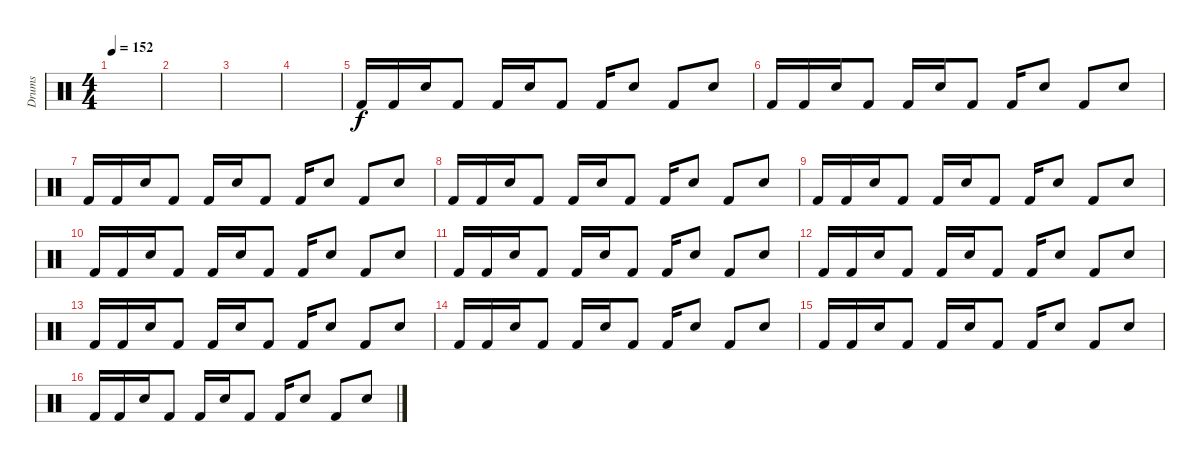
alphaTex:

\track ("Drums" "Drums") {instrument percussion}
\staff {score}
\articulation defaults
\ts (4 4)
\tempo 152
\clef neutral
\ks c
|
|
|
|
"Kick (hit) 2".16 "Kick (hit) 2".16 "Electric Snare (hit)".16 "Kick (hit) 2".8 "Kick (hit) 2".16 "Electric Snare (hit)".16 "Kick (hit) 2".8 "Kick (hit) 2".16 "Electric Snare (hit)".8 "Kick (hit) 2".8 "Electric Snare (hit)".8 |
"Kick (hit) 2".16 "Kick (hit) 2".16 "Electric Snare (hit)".16 "Kick (hit) 2".8 "Kick (hit) 2".16 "Electric Snare (hit)".16 "Kick (hit) 2".8 "Kick (hit) 2".16 "Electric Snare (hit)".8 "Kick (hit) 2".8 "Electric Snare (hit)".8 |
"Kick (hit) 2".16 "Kick (hit) 2".16 "Electric Snare (hit)".16 "Kick (hit) 2".8 "Kick (hit) 2".16 "Electric Snare (hit)".16 "Kick (hit) 2".8 "Kick (hit) 2".16 "Electric Snare (hit)".8 "Kick (hit) 2".8 "Electric Snare (hit)".8 |
"Kick (hit) 2".16 "Kick (hit) 2".16 "Electric Snare (hit)".16 "Kick (hit) 2".8 "Kick (hit) 2".16 "Electric Snare (hit)".16 "Kick (hit) 2".8 "Kick (hit) 2".16 "Electric Snare (hit)".8 "Kick (hit) 2".8 "Electric Snare (hit)".8 |
"Kick (hit) 2".16 "Kick (hit) 2".16 "Electric Snare (hit)".16 "Kick (hit) 2".8 "Kick (hit) 2".16 "Electric Snare (hit)".16 "Kick (hit) 2".8 "Kick (hit) 2".16 "Electric Snare (hit)".8 "Kick (hit) 2".8 "Electric Snare (hit)".8 |
"Kick (hit) 2".16 "Kick (hit) 2".16 "Electric Snare (hit)".16 "Kick (hit) 2".8 "Kick (hit) 2".16 "Electric Snare (hit)".16 "Kick (hit) 2".8 "Kick (hit) 2".16 "Electric Snare (hit)".8 "Kick (hit) 2".8 "Electric Snare (hit)".8 |
"Kick (hit) 2".16 "Kick (hit) 2".16 "Electric Snare (hit)".16 "Kick (hit) 2".8 "Kick (hit) 2".16 "Electric Snare (hit)".16 "Kick (hit) 2".8 "Kick (hit) 2".16 "Electric Snare (hit)".8 "Kick (hit) 2".8 "Electric Snare (hit)".8 |
"Kick (hit) 2".16 "Kick (hit) 2".16 "Electric Snare (hit)".16 "Kick (hit) 2".8 "Kick (hit) 2".16 "Electric Snare (hit)".16 "Kick (hit) 2".8 "Kick (hit) 2".16 "Electric Snare (hit)".8 "Kick (hit) 2".8 "Electric Snare (hit)".8 |
"Kick (hit) 2".16 "Kick (hit) 2".16 "Electric Snare (hit)".16 "Kick (hit) 2".8 "Kick (hit) 2".16 "Electric Snare (hit)".16 "Kick (hit) 2".8 "Kick (hit) 2".16 "Electric Snare (hit)".8 "Kick (hit) 2".8 "Electric Snare (hit)".8 |
"Kick (hit) 2".16 "Kick (hit) 2".16 "Electric Snare (hit)".16 "Kick (hit) 2".8 "Kick (hit) 2".16 "Electric Snare (hit)".16 "Kick (hit) 2".8 "Kick (hit) 2".16 "Electric Snare (hit)".8 "Kick (hit) 2".8 "Electric Snare (hit)".8 |
"Kick (hit) 2".16 "Kick (hit) 2".16 "Electric Snare (hit)".16 "Kick (hit) 2".8 "Kick (hit) 2".16 "Electric Snare (hit)".16 "Kick (hit) 2".8 "Kick (hit) 2".16 "Electric Snare (hit)".8 "Kick (hit) 2".8 "Electric Snare (hit)".8 |
"Kick (hit) 2".16 "Kick (hit) 2".16 "Electric Snare (hit)".16 "Kick (hit) 2".8 "Kick (hit) 2".16 "Electric Snare (hit)".16 "Kick (hit) 2".8 "Kick (hit) 2".16 "Electric Snare (hit)".8 "Kick (hit) 2".8 "Electric Snare (hit)".8
